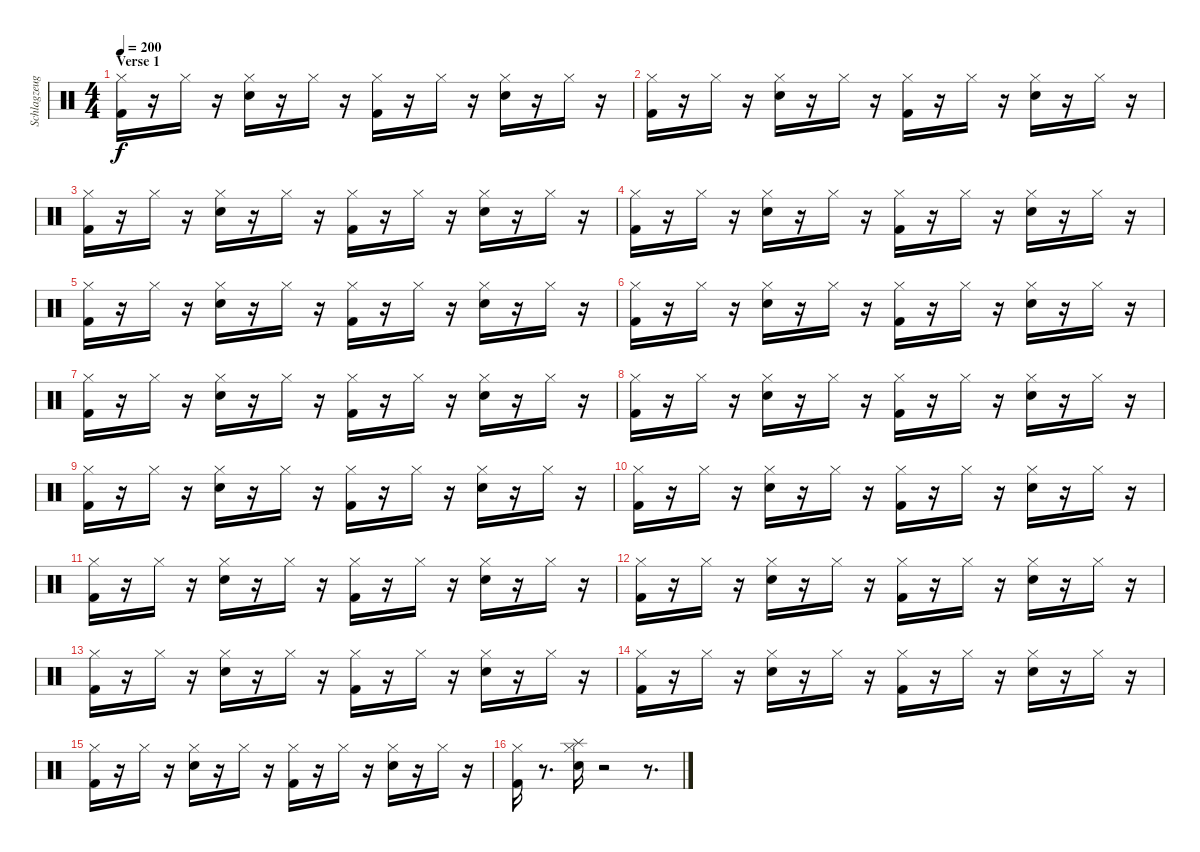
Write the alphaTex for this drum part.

\track ("Schlagzeug - Bela B." "Schlagzeug") {instrument percussion}
\staff {score}
\articulation defaults
\ts (4 4)
\section ("" "Verse 1")
\tempo 200
\clef neutral
\ks c
("Kick (hit) 2" "Hi-Hat (closed)").16{dy f} r.16 "Hi-Hat (closed)".16 r.16 ("Hi-Hat (closed)" "Snare (hit) 2").16 r.16 "Hi-Hat (closed)".16 r.16 ("Kick (hit) 2" "Hi-Hat (closed)").16 r.16 "Hi-Hat (closed)".16 r.16 ("Hi-Hat (closed)" "Snare (hit) 2").16 r.16 "Hi-Hat (closed)".16 r.16 |
("Kick (hit) 2" "Hi-Hat (closed)").16 r.16 "Hi-Hat (closed)".16 r.16 ("Hi-Hat (closed)" "Snare (hit) 2").16 r.16 "Hi-Hat (closed)".16 r.16 ("Kick (hit) 2" "Hi-Hat (closed)").16 r.16 "Hi-Hat (closed)".16 r.16 ("Hi-Hat (closed)" "Snare (hit) 2").16 r.16 "Hi-Hat (closed)".16 r.16 |
("Kick (hit) 2" "Hi-Hat (closed)").16 r.16 "Hi-Hat (closed)".16 r.16 ("Hi-Hat (closed)" "Snare (hit) 2").16 r.16 "Hi-Hat (closed)".16 r.16 ("Kick (hit) 2" "Hi-Hat (closed)").16 r.16 "Hi-Hat (closed)".16 r.16 ("Hi-Hat (closed)" "Snare (hit) 2").16 r.16 "Hi-Hat (closed)".16 r.16 |
("Kick (hit) 2" "Hi-Hat (closed)").16 r.16 "Hi-Hat (closed)".16 r.16 ("Hi-Hat (closed)" "Snare (hit) 2").16 r.16 "Hi-Hat (closed)".16 r.16 ("Kick (hit) 2" "Hi-Hat (closed)").16 r.16 "Hi-Hat (closed)".16 r.16 ("Hi-Hat (closed)" "Snare (hit) 2").16 r.16 "Hi-Hat (closed)".16 r.16 |
("Kick (hit) 2" "Hi-Hat (closed)").16 r.16 "Hi-Hat (closed)".16 r.16 ("Hi-Hat (closed)" "Snare (hit) 2").16 r.16 "Hi-Hat (closed)".16 r.16 ("Kick (hit) 2" "Hi-Hat (closed)").16 r.16 "Hi-Hat (closed)".16 r.16 ("Hi-Hat (closed)" "Snare (hit) 2").16 r.16 "Hi-Hat (closed)".16 r.16 |
("Kick (hit) 2" "Hi-Hat (closed)").16 r.16 "Hi-Hat (closed)".16 r.16 ("Hi-Hat (closed)" "Snare (hit) 2").16 r.16 "Hi-Hat (closed)".16 r.16 ("Kick (hit) 2" "Hi-Hat (closed)").16 r.16 "Hi-Hat (closed)".16 r.16 ("Hi-Hat (closed)" "Snare (hit) 2").16 r.16 "Hi-Hat (closed)".16 r.16 |
("Kick (hit) 2" "Hi-Hat (closed)").16 r.16 "Hi-Hat (closed)".16 r.16 ("Hi-Hat (closed)" "Snare (hit) 2").16 r.16 "Hi-Hat (closed)".16 r.16 ("Kick (hit) 2" "Hi-Hat (closed)").16 r.16 "Hi-Hat (closed)".16 r.16 ("Hi-Hat (closed)" "Snare (hit) 2").16 r.16 "Hi-Hat (closed)".16 r.16 |
("Kick (hit) 2" "Hi-Hat (closed)").16 r.16 "Hi-Hat (closed)".16 r.16 ("Hi-Hat (closed)" "Snare (hit) 2").16 r.16 "Hi-Hat (closed)".16 r.16 ("Kick (hit) 2" "Hi-Hat (closed)").16 r.16 "Hi-Hat (closed)".16 r.16 ("Hi-Hat (closed)" "Snare (hit) 2").16 r.16 "Hi-Hat (closed)".16 r.16 |
("Kick (hit) 2" "Hi-Hat (closed)").16 r.16 "Hi-Hat (closed)".16 r.16 ("Hi-Hat (closed)" "Snare (hit) 2").16 r.16 "Hi-Hat (closed)".16 r.16 ("Kick (hit) 2" "Hi-Hat (closed)").16 r.16 "Hi-Hat (closed)".16 r.16 ("Hi-Hat (closed)" "Snare (hit) 2").16 r.16 "Hi-Hat (closed)".16 r.16 |
("Kick (hit) 2" "Hi-Hat (closed)").16 r.16 "Hi-Hat (closed)".16 r.16 ("Hi-Hat (closed)" "Snare (hit) 2").16 r.16 "Hi-Hat (closed)".16 r.16 ("Kick (hit) 2" "Hi-Hat (closed)").16 r.16 "Hi-Hat (closed)".16 r.16 ("Hi-Hat (closed)" "Snare (hit) 2").16 r.16 "Hi-Hat (closed)".16 r.16 |
("Kick (hit) 2" "Hi-Hat (closed)").16 r.16 "Hi-Hat (closed)".16 r.16 ("Hi-Hat (closed)" "Snare (hit) 2").16 r.16 "Hi-Hat (closed)".16 r.16 ("Kick (hit) 2" "Hi-Hat (closed)").16 r.16 "Hi-Hat (closed)".16 r.16 ("Hi-Hat (closed)" "Snare (hit) 2").16 r.16 "Hi-Hat (closed)".16 r.16 |
("Kick (hit) 2" "Hi-Hat (closed)").16 r.16 "Hi-Hat (closed)".16 r.16 ("Hi-Hat (closed)" "Snare (hit) 2").16 r.16 "Hi-Hat (closed)".16 r.16 ("Kick (hit) 2" "Hi-Hat (closed)").16 r.16 "Hi-Hat (closed)".16 r.16 ("Hi-Hat (closed)" "Snare (hit) 2").16 r.16 "Hi-Hat (closed)".16 r.16 |
("Kick (hit) 2" "Hi-Hat (closed)").16 r.16 "Hi-Hat (closed)".16 r.16 ("Hi-Hat (closed)" "Snare (hit) 2").16 r.16 "Hi-Hat (closed)".16 r.16 ("Kick (hit) 2" "Hi-Hat (closed)").16 r.16 "Hi-Hat (closed)".16 r.16 ("Hi-Hat (closed)" "Snare (hit) 2").16 r.16 "Hi-Hat (closed)".16 r.16 |
("Kick (hit) 2" "Hi-Hat (closed)").16 r.16 "Hi-Hat (closed)".16 r.16 ("Hi-Hat (closed)" "Snare (hit) 2").16 r.16 "Hi-Hat (closed)".16 r.16 ("Kick (hit) 2" "Hi-Hat (closed)").16 r.16 "Hi-Hat (closed)".16 r.16 ("Hi-Hat (closed)" "Snare (hit) 2").16 r.16 "Hi-Hat (closed)".16 r.16 |
("Kick (hit) 2" "Hi-Hat (closed)").16 r.16 "Hi-Hat (closed)".16 r.16 ("Hi-Hat (closed)" "Snare (hit) 2").16 r.16 "Hi-Hat (closed)".16 r.16 ("Kick (hit) 2" "Hi-Hat (closed)").16 r.16 "Hi-Hat (closed)".16 r.16 ("Hi-Hat (closed)" "Snare (hit) 2").16 r.16 "Hi-Hat (closed)".16 r.16 |
("Kick (hit) 2" "Hi-Hat (closed)").16 r.8{d} ("Electric Snare (hit)" "Hi-Hat (closed)" "Splash (hit)").16 r.2 r.8{d}
